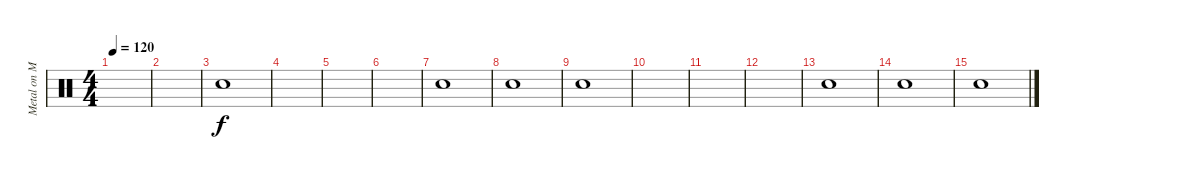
\track ("Metal on Metal" "Metal on M") {instrument percussion}
\staff {score}
\articulation defaults
\ts (4 4)
\tempo 120
\clef neutral
\ks c
|
|
"Snare (hit)".1 |
|
|
|
"Snare (hit)".1 |
"Snare (hit)".1 |
"Snare (hit)".1 |
|
|
|
"Snare (hit)".1 |
"Snare (hit)".1 |
"Snare (hit)".1
